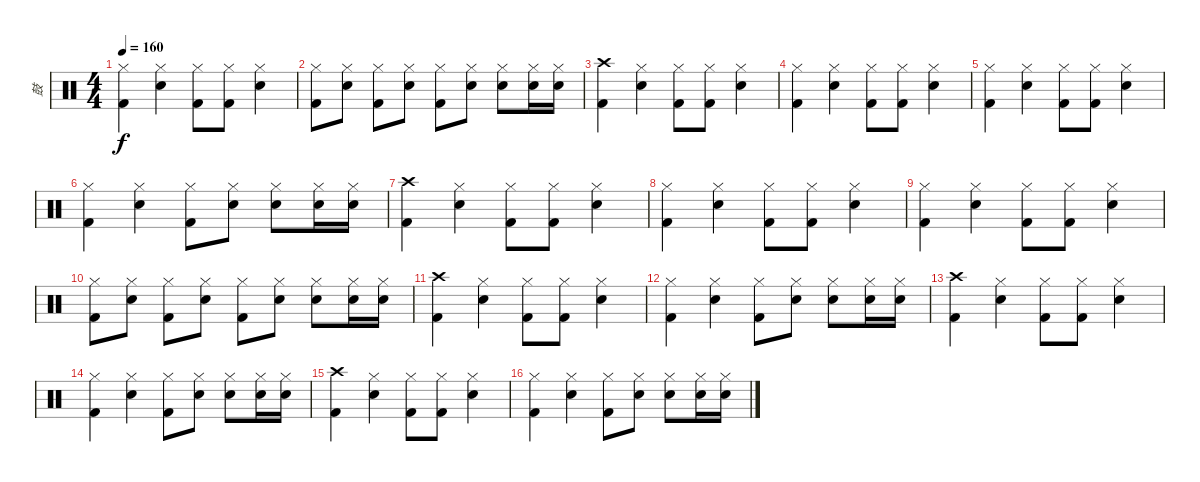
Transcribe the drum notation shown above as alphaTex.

\track ("鼓" "鼓") {instrument percussion}
\staff {score}
\articulation defaults
\ts (4 4)
\tempo 160
\clef neutral
\ks c
("Hi-Hat (closed)" "Kick (hit) 2").4{dy f} ("Hi-Hat (closed)" "Snare (hit) 2").4 ("Hi-Hat (closed)" "Kick (hit) 2").8 ("Hi-Hat (closed)" "Kick (hit) 2").8 ("Hi-Hat (closed)" "Snare (hit) 2").4 |
("Hi-Hat (closed)" "Kick (hit) 2").8 ("Hi-Hat (closed)" "Snare (hit) 2").8 ("Hi-Hat (closed)" "Kick (hit) 2").8 ("Hi-Hat (closed)" "Snare (hit) 2").8 ("Hi-Hat (closed)" "Kick (hit) 2").8 ("Hi-Hat (closed)" "Snare (hit) 2").8 ("Hi-Hat (closed)" "Snare (hit) 2").8 ("Hi-Hat (closed)" "Snare (hit) 2").16 ("Hi-Hat (closed)" "Snare (hit) 2").16 |
("Crash high (hit)" "Kick (hit) 2").4 ("Hi-Hat (closed)" "Snare (hit) 2").4 ("Hi-Hat (closed)" "Kick (hit) 2").8 ("Hi-Hat (closed)" "Kick (hit) 2").8 ("Hi-Hat (closed)" "Snare (hit) 2").4 |
("Hi-Hat (closed)" "Kick (hit) 2").4 ("Hi-Hat (closed)" "Snare (hit) 2").4 ("Hi-Hat (closed)" "Kick (hit) 2").8 ("Hi-Hat (closed)" "Kick (hit) 2").8 ("Hi-Hat (closed)" "Snare (hit) 2").4 |
("Hi-Hat (closed)" "Kick (hit) 2").4 ("Hi-Hat (closed)" "Snare (hit) 2").4 ("Hi-Hat (closed)" "Kick (hit) 2").8 ("Hi-Hat (closed)" "Kick (hit) 2").8 ("Hi-Hat (closed)" "Snare (hit) 2").4 |
("Hi-Hat (closed)" "Kick (hit) 2").4 ("Hi-Hat (closed)" "Snare (hit) 2").4 ("Hi-Hat (closed)" "Kick (hit) 2").8 ("Hi-Hat (closed)" "Snare (hit) 2").8 ("Hi-Hat (closed)" "Snare (hit) 2").8 ("Hi-Hat (closed)" "Snare (hit) 2").16 ("Hi-Hat (closed)" "Snare (hit) 2").16 |
("Crash high (hit)" "Kick (hit) 2").4 ("Hi-Hat (closed)" "Snare (hit) 2").4 ("Hi-Hat (closed)" "Kick (hit) 2").8 ("Hi-Hat (closed)" "Kick (hit) 2").8 ("Hi-Hat (closed)" "Snare (hit) 2").4 |
("Hi-Hat (closed)" "Kick (hit) 2").4 ("Hi-Hat (closed)" "Snare (hit) 2").4 ("Hi-Hat (closed)" "Kick (hit) 2").8 ("Hi-Hat (closed)" "Kick (hit) 2").8 ("Hi-Hat (closed)" "Snare (hit) 2").4 |
("Hi-Hat (closed)" "Kick (hit) 2").4 ("Hi-Hat (closed)" "Snare (hit) 2").4 ("Hi-Hat (closed)" "Kick (hit) 2").8 ("Hi-Hat (closed)" "Kick (hit) 2").8 ("Hi-Hat (closed)" "Snare (hit) 2").4 |
("Hi-Hat (closed)" "Kick (hit) 2").8 ("Hi-Hat (closed)" "Snare (hit) 2").8 ("Hi-Hat (closed)" "Kick (hit) 2").8 ("Hi-Hat (closed)" "Snare (hit) 2").8 ("Hi-Hat (closed)" "Kick (hit) 2").8 ("Hi-Hat (closed)" "Snare (hit) 2").8 ("Hi-Hat (closed)" "Snare (hit) 2").8 ("Hi-Hat (closed)" "Snare (hit) 2").16 ("Hi-Hat (closed)" "Snare (hit) 2").16 |
("Crash high (hit)" "Kick (hit) 2").4 ("Hi-Hat (closed)" "Snare (hit) 2").4 ("Hi-Hat (closed)" "Kick (hit) 2").8 ("Hi-Hat (closed)" "Kick (hit) 2").8 ("Hi-Hat (closed)" "Snare (hit) 2").4 |
("Hi-Hat (closed)" "Kick (hit) 2").4 ("Hi-Hat (closed)" "Snare (hit) 2").4 ("Hi-Hat (closed)" "Kick (hit) 2").8 ("Hi-Hat (closed)" "Snare (hit) 2").8 ("Hi-Hat (closed)" "Snare (hit) 2").8 ("Hi-Hat (closed)" "Snare (hit) 2").16 ("Hi-Hat (closed)" "Snare (hit) 2").16 |
("Crash high (hit)" "Kick (hit) 2").4 ("Hi-Hat (closed)" "Snare (hit) 2").4 ("Hi-Hat (closed)" "Kick (hit) 2").8 ("Hi-Hat (closed)" "Kick (hit) 2").8 ("Hi-Hat (closed)" "Snare (hit) 2").4 |
("Hi-Hat (closed)" "Kick (hit) 2").4 ("Hi-Hat (closed)" "Snare (hit) 2").4 ("Hi-Hat (closed)" "Kick (hit) 2").8 ("Hi-Hat (closed)" "Snare (hit) 2").8 ("Hi-Hat (closed)" "Snare (hit) 2").8 ("Hi-Hat (closed)" "Snare (hit) 2").16 ("Hi-Hat (closed)" "Snare (hit) 2").16 |
("Crash high (hit)" "Kick (hit) 2").4 ("Hi-Hat (closed)" "Snare (hit) 2").4 ("Hi-Hat (closed)" "Kick (hit) 2").8 ("Hi-Hat (closed)" "Kick (hit) 2").8 ("Hi-Hat (closed)" "Snare (hit) 2").4 |
("Hi-Hat (closed)" "Kick (hit) 2").4 ("Hi-Hat (closed)" "Snare (hit) 2").4 ("Hi-Hat (closed)" "Kick (hit) 2").8 ("Hi-Hat (closed)" "Snare (hit) 2").8 ("Hi-Hat (closed)" "Snare (hit) 2").8 ("Hi-Hat (closed)" "Snare (hit) 2").16 ("Hi-Hat (closed)" "Snare (hit) 2").16
